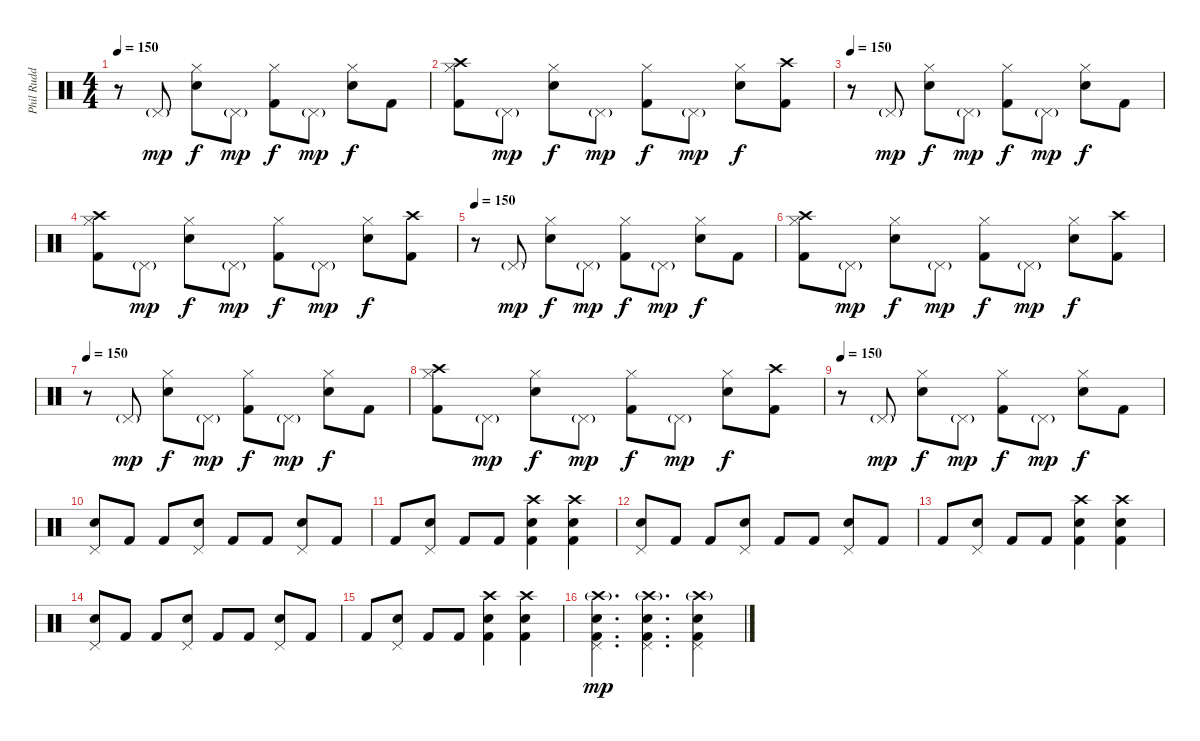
\track ("Phil Rudd" "Phil Rudd") {instrument percussion}
\staff {score}
\articulation defaults
\ts (4 4)
\tempo 150
\clef neutral
\ks c
r.8{dy f} "Pedal Hi-Hat (hit)"{g}.8{dy mp} ("Hi-Hat (closed)" "Snare (hit) 2").8{dy f} "Pedal Hi-Hat (hit)"{g}.8{dy mp} ("Hi-Hat (closed)" "Kick (hit) 2").8{dy f} "Pedal Hi-Hat (hit)"{g}.8{dy mp} ("Hi-Hat (closed)" "Snare (hit) 2").8{dy f} "Kick (hit) 2".8 |
("Crash high (hit)" "Kick (hit) 2" "Hi-Hat (closed)").8 "Pedal Hi-Hat (hit)"{g}.8{dy mp} ("Snare (hit) 2" "Hi-Hat (closed)").8{dy f} "Pedal Hi-Hat (hit)"{g}.8{dy mp} ("Kick (hit) 2" "Hi-Hat (closed)").8{dy f} "Pedal Hi-Hat (hit)"{g}.8{dy mp} ("Hi-Hat (closed)" "Snare (hit) 2").8{dy f} ("Crash high (hit)" "Kick (hit) 2").8 |
\tempo 150
r.8 "Pedal Hi-Hat (hit)"{g}.8{dy mp} ("Hi-Hat (closed)" "Snare (hit) 2").8{dy f} "Pedal Hi-Hat (hit)"{g}.8{dy mp} ("Hi-Hat (closed)" "Kick (hit) 2").8{dy f} "Pedal Hi-Hat (hit)"{g}.8{dy mp} ("Hi-Hat (closed)" "Snare (hit) 2").8{dy f} "Kick (hit) 2".8 |
("Crash high (hit)" "Kick (hit) 2" "Hi-Hat (closed)").8 "Pedal Hi-Hat (hit)"{g}.8{dy mp} ("Snare (hit) 2" "Hi-Hat (closed)").8{dy f} "Pedal Hi-Hat (hit)"{g}.8{dy mp} ("Kick (hit) 2" "Hi-Hat (closed)").8{dy f} "Pedal Hi-Hat (hit)"{g}.8{dy mp} ("Hi-Hat (closed)" "Snare (hit) 2").8{dy f} ("Crash high (hit)" "Kick (hit) 2").8 |
\tempo 150
r.8 "Pedal Hi-Hat (hit)"{g}.8{dy mp} ("Hi-Hat (closed)" "Snare (hit) 2").8{dy f} "Pedal Hi-Hat (hit)"{g}.8{dy mp} ("Hi-Hat (closed)" "Kick (hit) 2").8{dy f} "Pedal Hi-Hat (hit)"{g}.8{dy mp} ("Hi-Hat (closed)" "Snare (hit) 2").8{dy f} "Kick (hit) 2".8 |
("Crash high (hit)" "Kick (hit) 2" "Hi-Hat (closed)").8 "Pedal Hi-Hat (hit)"{g}.8{dy mp} ("Snare (hit) 2" "Hi-Hat (closed)").8{dy f} "Pedal Hi-Hat (hit)"{g}.8{dy mp} ("Kick (hit) 2" "Hi-Hat (closed)").8{dy f} "Pedal Hi-Hat (hit)"{g}.8{dy mp} ("Hi-Hat (closed)" "Snare (hit) 2").8{dy f} ("Crash high (hit)" "Kick (hit) 2").8 |
\tempo 150
r.8 "Pedal Hi-Hat (hit)"{g}.8{dy mp} ("Hi-Hat (closed)" "Snare (hit) 2").8{dy f} "Pedal Hi-Hat (hit)"{g}.8{dy mp} ("Hi-Hat (closed)" "Kick (hit) 2").8{dy f} "Pedal Hi-Hat (hit)"{g}.8{dy mp} ("Hi-Hat (closed)" "Snare (hit) 2").8{dy f} "Kick (hit) 2".8 |
("Crash high (hit)" "Kick (hit) 2" "Hi-Hat (closed)").8 "Pedal Hi-Hat (hit)"{g}.8{dy mp} ("Snare (hit) 2" "Hi-Hat (closed)").8{dy f} "Pedal Hi-Hat (hit)"{g}.8{dy mp} ("Kick (hit) 2" "Hi-Hat (closed)").8{dy f} "Pedal Hi-Hat (hit)"{g}.8{dy mp} ("Hi-Hat (closed)" "Snare (hit) 2").8{dy f} ("Crash high (hit)" "Kick (hit) 2").8 |
\tempo 150
r.8 "Pedal Hi-Hat (hit)"{g}.8{dy mp} ("Hi-Hat (closed)" "Snare (hit) 2").8{dy f} "Pedal Hi-Hat (hit)"{g}.8{dy mp} ("Hi-Hat (closed)" "Kick (hit) 2").8{dy f} "Pedal Hi-Hat (hit)"{g}.8{dy mp} ("Hi-Hat (closed)" "Snare (hit) 2").8{dy f} "Kick (hit) 2".8 |
("Snare (hit) 2" "Pedal Hi-Hat (hit)").8 "Kick (hit) 2".8 "Kick (hit) 2".8 ("Snare (hit) 2" "Pedal Hi-Hat (hit)").8 "Kick (hit) 2".8 "Kick (hit) 2".8 ("Snare (hit) 2" "Pedal Hi-Hat (hit)").8 "Kick (hit) 2".8 |
"Kick (hit) 2".8 ("Snare (hit) 2" "Pedal Hi-Hat (hit)").8 "Kick (hit) 2".8 "Kick (hit) 2".8 ("Crash high (hit)" "Snare (hit) 2" "Kick (hit) 2").4 ("Crash high (hit)" "Kick (hit) 2" "Snare (hit) 2").4 |
("Snare (hit) 2" "Pedal Hi-Hat (hit)").8 "Kick (hit) 2".8 "Kick (hit) 2".8 ("Snare (hit) 2" "Pedal Hi-Hat (hit)").8 "Kick (hit) 2".8 "Kick (hit) 2".8 ("Snare (hit) 2" "Pedal Hi-Hat (hit)").8 "Kick (hit) 2".8 |
"Kick (hit) 2".8 ("Snare (hit) 2" "Pedal Hi-Hat (hit)").8 "Kick (hit) 2".8 "Kick (hit) 2".8 ("Crash high (hit)" "Snare (hit) 2" "Kick (hit) 2").4 ("Crash high (hit)" "Kick (hit) 2" "Snare (hit) 2").4 |
("Snare (hit) 2" "Pedal Hi-Hat (hit)").8 "Kick (hit) 2".8 "Kick (hit) 2".8 ("Snare (hit) 2" "Pedal Hi-Hat (hit)").8 "Kick (hit) 2".8 "Kick (hit) 2".8 ("Snare (hit) 2" "Pedal Hi-Hat (hit)").8 "Kick (hit) 2".8 |
"Kick (hit) 2".8 ("Snare (hit) 2" "Pedal Hi-Hat (hit)").8 "Kick (hit) 2".8 "Kick (hit) 2".8 ("Crash high (hit)" "Snare (hit) 2" "Kick (hit) 2").4 ("Crash high (hit)" "Kick (hit) 2" "Snare (hit) 2").4 |
("Snare (hit) 2" "Kick (hit) 2" "Pedal Hi-Hat (hit)" "Crash high (hit)"{g}).4{d dy mp} ("Kick (hit) 2" "Snare (hit) 2" "Pedal Hi-Hat (hit)" "Crash high (hit)"{g}).4{d} ("Kick (hit) 2" "Snare (hit) 2" "Pedal Hi-Hat (hit)" "Crash high (hit)"{g}).4
